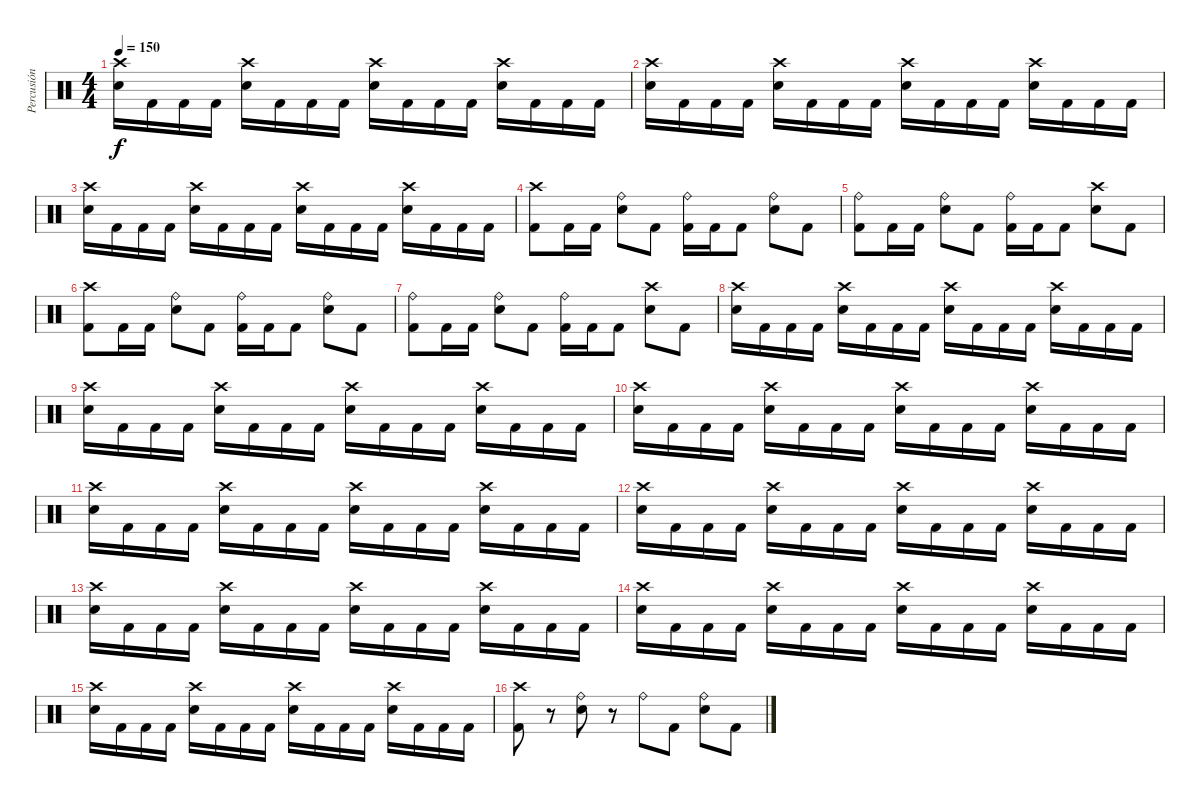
\track ("Percusión" "Percusión") {instrument percussion}
\staff {score}
\articulation defaults
\ts (4 4)
\tempo 150
\clef neutral
\ks c
("Crash high (hit)" "Electric Snare (hit)").16{dy f} "Kick (hit) 2".16 "Kick (hit) 2".16 "Kick (hit) 2".16 ("Crash high (hit)" "Electric Snare (hit)").16 "Kick (hit) 2".16 "Kick (hit) 2".16 "Kick (hit) 2".16 ("Crash high (hit)" "Electric Snare (hit)").16 "Kick (hit) 2".16 "Kick (hit) 2".16 "Kick (hit) 2".16 ("Crash high (hit)" "Electric Snare (hit)").16 "Kick (hit) 2".16 "Kick (hit) 2".16 "Kick (hit) 2".16 |
("Crash high (hit)" "Electric Snare (hit)").16 "Kick (hit) 2".16 "Kick (hit) 2".16 "Kick (hit) 2".16 ("Crash high (hit)" "Electric Snare (hit)").16 "Kick (hit) 2".16 "Kick (hit) 2".16 "Kick (hit) 2".16 ("Crash high (hit)" "Electric Snare (hit)").16 "Kick (hit) 2".16 "Kick (hit) 2".16 "Kick (hit) 2".16 ("Crash high (hit)" "Electric Snare (hit)").16 "Kick (hit) 2".16 "Kick (hit) 2".16 "Kick (hit) 2".16 |
("Crash high (hit)" "Electric Snare (hit)").16 "Kick (hit) 2".16 "Kick (hit) 2".16 "Kick (hit) 2".16 ("Crash high (hit)" "Electric Snare (hit)").16 "Kick (hit) 2".16 "Kick (hit) 2".16 "Kick (hit) 2".16 ("Crash high (hit)" "Electric Snare (hit)").16 "Kick (hit) 2".16 "Kick (hit) 2".16 "Kick (hit) 2".16 ("Crash high (hit)" "Electric Snare (hit)").16 "Kick (hit) 2".16 "Kick (hit) 2".16 "Kick (hit) 2".16 |
("Crash high (hit)" "Kick (hit) 2").8 "Kick (hit) 2".16 "Kick (hit) 2".16 ("Ride (bell)" "Electric Snare (hit)").8 "Kick (hit) 2".8 ("Ride (bell)" "Kick (hit) 2").16 "Kick (hit) 2".16 "Kick (hit) 2".8 ("Ride (bell)" "Electric Snare (hit)").8 "Kick (hit) 2".8 |
("Ride (bell)" "Kick (hit) 2").8 "Kick (hit) 2".16 "Kick (hit) 2".16 ("Ride (bell)" "Electric Snare (hit)").8 "Kick (hit) 2".8 ("Ride (bell)" "Kick (hit) 2").16 "Kick (hit) 2".16 "Kick (hit) 2".8 ("Crash high (hit)" "Electric Snare (hit)").8 "Kick (hit) 2".8 |
("Crash high (hit)" "Kick (hit) 2").8 "Kick (hit) 2".16 "Kick (hit) 2".16 ("Ride (bell)" "Electric Snare (hit)").8 "Kick (hit) 2".8 ("Ride (bell)" "Kick (hit) 2").16 "Kick (hit) 2".16 "Kick (hit) 2".8 ("Ride (bell)" "Electric Snare (hit)").8 "Kick (hit) 2".8 |
("Ride (bell)" "Kick (hit) 2").8 "Kick (hit) 2".16 "Kick (hit) 2".16 ("Ride (bell)" "Electric Snare (hit)").8 "Kick (hit) 2".8 ("Ride (bell)" "Kick (hit) 2").16 "Kick (hit) 2".16 "Kick (hit) 2".8 ("Crash high (hit)" "Electric Snare (hit)").8 "Kick (hit) 2".8 |
("Crash high (hit)" "Electric Snare (hit)").16 "Kick (hit) 2".16 "Kick (hit) 2".16 "Kick (hit) 2".16 ("Crash high (hit)" "Electric Snare (hit)").16 "Kick (hit) 2".16 "Kick (hit) 2".16 "Kick (hit) 2".16 ("Crash high (hit)" "Electric Snare (hit)").16 "Kick (hit) 2".16 "Kick (hit) 2".16 "Kick (hit) 2".16 ("Crash high (hit)" "Electric Snare (hit)").16 "Kick (hit) 2".16 "Kick (hit) 2".16 "Kick (hit) 2".16 |
("Crash high (hit)" "Electric Snare (hit)").16 "Kick (hit) 2".16 "Kick (hit) 2".16 "Kick (hit) 2".16 ("Crash high (hit)" "Electric Snare (hit)").16 "Kick (hit) 2".16 "Kick (hit) 2".16 "Kick (hit) 2".16 ("Crash high (hit)" "Electric Snare (hit)").16 "Kick (hit) 2".16 "Kick (hit) 2".16 "Kick (hit) 2".16 ("Crash high (hit)" "Electric Snare (hit)").16 "Kick (hit) 2".16 "Kick (hit) 2".16 "Kick (hit) 2".16 |
("Crash high (hit)" "Electric Snare (hit)").16 "Kick (hit) 2".16 "Kick (hit) 2".16 "Kick (hit) 2".16 ("Crash high (hit)" "Electric Snare (hit)").16 "Kick (hit) 2".16 "Kick (hit) 2".16 "Kick (hit) 2".16 ("Crash high (hit)" "Electric Snare (hit)").16 "Kick (hit) 2".16 "Kick (hit) 2".16 "Kick (hit) 2".16 ("Crash high (hit)" "Electric Snare (hit)").16 "Kick (hit) 2".16 "Kick (hit) 2".16 "Kick (hit) 2".16 |
("Crash high (hit)" "Electric Snare (hit)").16 "Kick (hit) 2".16 "Kick (hit) 2".16 "Kick (hit) 2".16 ("Crash high (hit)" "Electric Snare (hit)").16 "Kick (hit) 2".16 "Kick (hit) 2".16 "Kick (hit) 2".16 ("Crash high (hit)" "Electric Snare (hit)").16 "Kick (hit) 2".16 "Kick (hit) 2".16 "Kick (hit) 2".16 ("Crash high (hit)" "Electric Snare (hit)").16 "Kick (hit) 2".16 "Kick (hit) 2".16 "Kick (hit) 2".16 |
("Crash high (hit)" "Electric Snare (hit)").16 "Kick (hit) 2".16 "Kick (hit) 2".16 "Kick (hit) 2".16 ("Crash high (hit)" "Electric Snare (hit)").16 "Kick (hit) 2".16 "Kick (hit) 2".16 "Kick (hit) 2".16 ("Crash high (hit)" "Electric Snare (hit)").16 "Kick (hit) 2".16 "Kick (hit) 2".16 "Kick (hit) 2".16 ("Crash high (hit)" "Electric Snare (hit)").16 "Kick (hit) 2".16 "Kick (hit) 2".16 "Kick (hit) 2".16 |
("Crash high (hit)" "Electric Snare (hit)").16 "Kick (hit) 2".16 "Kick (hit) 2".16 "Kick (hit) 2".16 ("Crash high (hit)" "Electric Snare (hit)").16 "Kick (hit) 2".16 "Kick (hit) 2".16 "Kick (hit) 2".16 ("Crash high (hit)" "Electric Snare (hit)").16 "Kick (hit) 2".16 "Kick (hit) 2".16 "Kick (hit) 2".16 ("Crash high (hit)" "Electric Snare (hit)").16 "Kick (hit) 2".16 "Kick (hit) 2".16 "Kick (hit) 2".16 |
("Crash high (hit)" "Electric Snare (hit)").16 "Kick (hit) 2".16 "Kick (hit) 2".16 "Kick (hit) 2".16 ("Crash high (hit)" "Electric Snare (hit)").16 "Kick (hit) 2".16 "Kick (hit) 2".16 "Kick (hit) 2".16 ("Crash high (hit)" "Electric Snare (hit)").16 "Kick (hit) 2".16 "Kick (hit) 2".16 "Kick (hit) 2".16 ("Crash high (hit)" "Electric Snare (hit)").16 "Kick (hit) 2".16 "Kick (hit) 2".16 "Kick (hit) 2".16 |
("Crash high (hit)" "Electric Snare (hit)").16 "Kick (hit) 2".16 "Kick (hit) 2".16 "Kick (hit) 2".16 ("Crash high (hit)" "Electric Snare (hit)").16 "Kick (hit) 2".16 "Kick (hit) 2".16 "Kick (hit) 2".16 ("Crash high (hit)" "Electric Snare (hit)").16 "Kick (hit) 2".16 "Kick (hit) 2".16 "Kick (hit) 2".16 ("Crash high (hit)" "Electric Snare (hit)").16 "Kick (hit) 2".16 "Kick (hit) 2".16 "Kick (hit) 2".16 |
("Crash high (hit)" "Kick (hit) 2").8 r.8 ("Ride (bell)" "Electric Snare (hit)").8 r.8 "Ride (bell)".8 "Kick (hit) 2".8 ("Ride (bell)" "Electric Snare (hit)").8 "Kick (hit) 2".8
